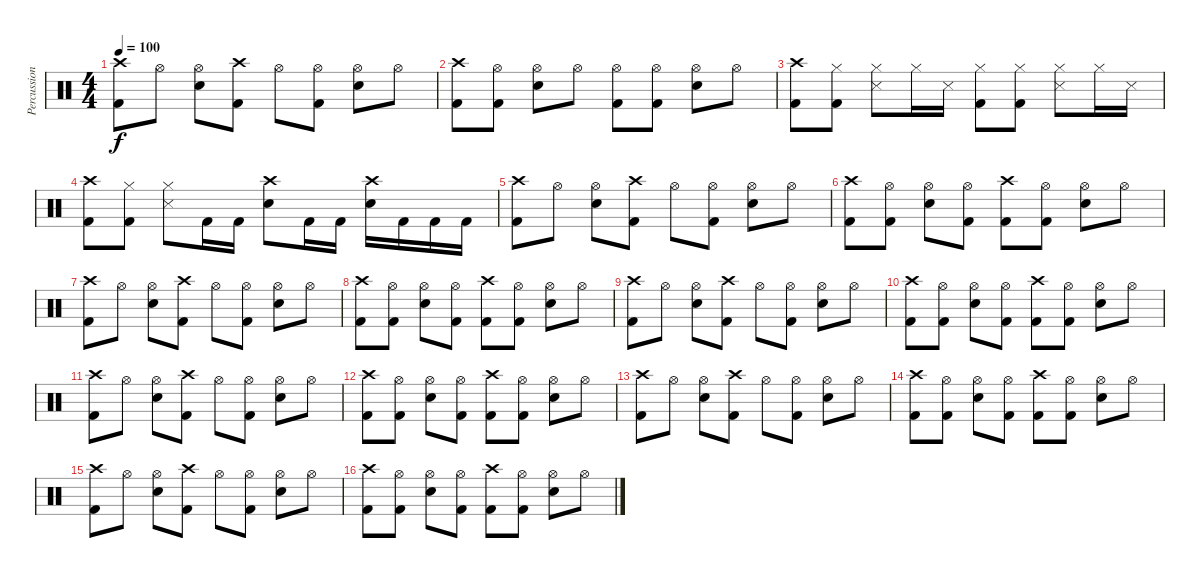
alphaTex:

\track ("Percussion" "Percussion") {instrument percussion}
\staff {score}
\articulation defaults
\ts (4 4)
\tempo 100
\clef neutral
\ks c
("Crash high (hit)" "Kick (hit) 2").8{dy f} "Hi-Hat (open)".8 ("Hi-Hat (open)" "Snare (hit) 2").8 ("Crash high (hit)" "Kick (hit) 2").8 "Hi-Hat (open)".8 ("Hi-Hat (open)" "Kick (hit) 2").8 ("Hi-Hat (open)" "Snare (hit) 2").8 "Hi-Hat (open)".8 |
("Crash high (hit)" "Kick (hit) 2").8 ("Hi-Hat (open)" "Kick (hit) 2").8 ("Hi-Hat (open)" "Snare (hit) 2").8 "Hi-Hat (open)".8 ("Hi-Hat (open)" "Kick (hit) 2").8 ("Hi-Hat (open)" "Kick (hit) 2").8 ("Hi-Hat (open)" "Snare (hit) 2").8 "Hi-Hat (open)".8 |
("Crash high (hit)" "Kick (hit) 2").8 ("Hi-Hat (closed)" "Kick (hit) 2").8 ("Hi-Hat (closed)" "Snare (side stick) 3").8 "Hi-Hat (closed)".16 "Snare (side stick) 3".16 ("Hi-Hat (closed)" "Kick (hit) 2").8 ("Hi-Hat (closed)" "Kick (hit) 2").8 ("Hi-Hat (closed)" "Snare (side stick) 3").8 "Hi-Hat (closed)".16 "Snare (side stick) 3".16 |
("Crash high (hit)" "Kick (hit) 2").8 ("Hi-Hat (closed)" "Kick (hit) 2").8 ("Hi-Hat (closed)" "Snare (side stick) 3").8 "Kick (hit) 2".16 "Kick (hit) 2".16 ("Crash high (hit)" "Snare (hit) 2").8 "Kick (hit) 2".16 "Kick (hit) 2".16 ("Crash high (hit)" "Snare (hit) 2").16 "Kick (hit) 2".16 "Kick (hit) 2".16 "Kick (hit) 2".16 |
("Crash high (hit)" "Kick (hit) 2").8 "Hi-Hat (open)".8 ("Hi-Hat (open)" "Snare (hit) 2").8 ("Crash high (hit)" "Kick (hit) 2").8 "Hi-Hat (open)".8 ("Hi-Hat (open)" "Kick (hit) 2").8 ("Hi-Hat (open)" "Snare (hit) 2").8 "Hi-Hat (open)".8 |
("Crash high (hit)" "Kick (hit) 2").8 ("Hi-Hat (open)" "Kick (hit) 2").8 ("Hi-Hat (open)" "Snare (hit) 2").8 ("Hi-Hat (open)" "Kick (hit) 2").8 ("Crash high (hit)" "Kick (hit) 2").8 ("Hi-Hat (open)" "Kick (hit) 2").8 ("Hi-Hat (open)" "Snare (hit) 2").8 "Hi-Hat (open)".8 |
("Crash high (hit)" "Kick (hit) 2").8 "Hi-Hat (open)".8 ("Hi-Hat (open)" "Snare (hit) 2").8 ("Crash high (hit)" "Kick (hit) 2").8 "Hi-Hat (open)".8 ("Hi-Hat (open)" "Kick (hit) 2").8 ("Hi-Hat (open)" "Snare (hit) 2").8 "Hi-Hat (open)".8 |
("Crash high (hit)" "Kick (hit) 2").8 ("Hi-Hat (open)" "Kick (hit) 2").8 ("Hi-Hat (open)" "Snare (hit) 2").8 ("Hi-Hat (open)" "Kick (hit) 2").8 ("Crash high (hit)" "Kick (hit) 2").8 ("Hi-Hat (open)" "Kick (hit) 2").8 ("Hi-Hat (open)" "Snare (hit) 2").8 "Hi-Hat (open)".8 |
("Crash high (hit)" "Kick (hit) 2").8 "Hi-Hat (open)".8 ("Hi-Hat (open)" "Snare (hit) 2").8 ("Crash high (hit)" "Kick (hit) 2").8 "Hi-Hat (open)".8 ("Hi-Hat (open)" "Kick (hit) 2").8 ("Hi-Hat (open)" "Snare (hit) 2").8 "Hi-Hat (open)".8 |
("Crash high (hit)" "Kick (hit) 2").8 ("Hi-Hat (open)" "Kick (hit) 2").8 ("Hi-Hat (open)" "Snare (hit) 2").8 ("Hi-Hat (open)" "Kick (hit) 2").8 ("Crash high (hit)" "Kick (hit) 2").8 ("Hi-Hat (open)" "Kick (hit) 2").8 ("Hi-Hat (open)" "Snare (hit) 2").8 "Hi-Hat (open)".8 |
("Crash high (hit)" "Kick (hit) 2").8 "Hi-Hat (open)".8 ("Hi-Hat (open)" "Snare (hit) 2").8 ("Crash high (hit)" "Kick (hit) 2").8 "Hi-Hat (open)".8 ("Hi-Hat (open)" "Kick (hit) 2").8 ("Hi-Hat (open)" "Snare (hit) 2").8 "Hi-Hat (open)".8 |
("Crash high (hit)" "Kick (hit) 2").8 ("Hi-Hat (open)" "Kick (hit) 2").8 ("Hi-Hat (open)" "Snare (hit) 2").8 ("Hi-Hat (open)" "Kick (hit) 2").8 ("Crash high (hit)" "Kick (hit) 2").8 ("Hi-Hat (open)" "Kick (hit) 2").8 ("Hi-Hat (open)" "Snare (hit) 2").8 "Hi-Hat (open)".8 |
("Crash high (hit)" "Kick (hit) 2").8 "Hi-Hat (open)".8 ("Hi-Hat (open)" "Snare (hit) 2").8 ("Crash high (hit)" "Kick (hit) 2").8 "Hi-Hat (open)".8 ("Hi-Hat (open)" "Kick (hit) 2").8 ("Hi-Hat (open)" "Snare (hit) 2").8 "Hi-Hat (open)".8 |
("Crash high (hit)" "Kick (hit) 2").8 ("Hi-Hat (open)" "Kick (hit) 2").8 ("Hi-Hat (open)" "Snare (hit) 2").8 ("Hi-Hat (open)" "Kick (hit) 2").8 ("Crash high (hit)" "Kick (hit) 2").8 ("Hi-Hat (open)" "Kick (hit) 2").8 ("Hi-Hat (open)" "Snare (hit) 2").8 "Hi-Hat (open)".8 |
("Crash high (hit)" "Kick (hit) 2").8 "Hi-Hat (open)".8 ("Hi-Hat (open)" "Snare (hit) 2").8 ("Crash high (hit)" "Kick (hit) 2").8 "Hi-Hat (open)".8 ("Hi-Hat (open)" "Kick (hit) 2").8 ("Hi-Hat (open)" "Snare (hit) 2").8 "Hi-Hat (open)".8 |
("Crash high (hit)" "Kick (hit) 2").8 ("Hi-Hat (open)" "Kick (hit) 2").8 ("Hi-Hat (open)" "Snare (hit) 2").8 ("Hi-Hat (open)" "Kick (hit) 2").8 ("Crash high (hit)" "Kick (hit) 2").8 ("Hi-Hat (open)" "Kick (hit) 2").8 ("Hi-Hat (open)" "Snare (hit) 2").8 "Hi-Hat (open)".8
